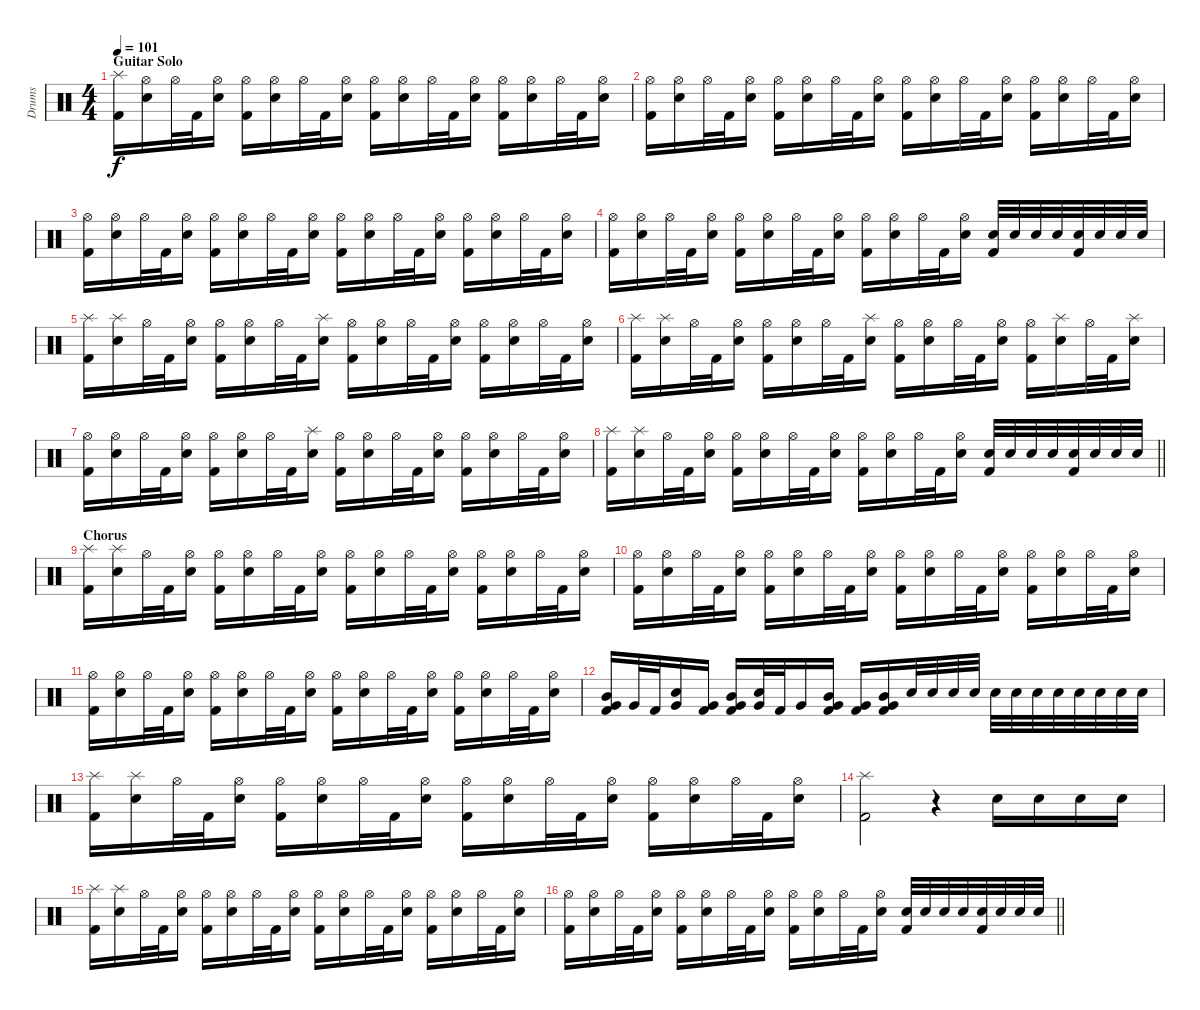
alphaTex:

\track ("Drums" "Drums") {instrument percussion}
\staff {score}
\articulation defaults
\ts (4 4)
\section ("" "Guitar Solo")
\tempo 101
\clef neutral
\ks c
("Splash (hit)" "Kick (hit) 2").16{dy f} ("Hi-Hat (open)" "Electric Snare (hit)").16 "Hi-Hat (open)".32 "Kick (hit) 2".32 ("Hi-Hat (open)" "Electric Snare (hit)").16 ("Hi-Hat (open)" "Kick (hit) 2").16 ("Hi-Hat (open)" "Electric Snare (hit)").16 "Hi-Hat (open)".32 "Kick (hit) 2".32 ("Hi-Hat (open)" "Electric Snare (hit)").16 ("Hi-Hat (open)" "Kick (hit) 2").16 ("Hi-Hat (open)" "Electric Snare (hit)").16 "Hi-Hat (open)".32 "Kick (hit) 2".32 ("Hi-Hat (open)" "Electric Snare (hit)").16 ("Hi-Hat (open)" "Kick (hit) 2").16 ("Hi-Hat (open)" "Electric Snare (hit)").16 "Hi-Hat (open)".32 "Kick (hit) 2".32 ("Hi-Hat (open)" "Electric Snare (hit)").16 |
("Hi-Hat (open)" "Kick (hit) 2").16 ("Hi-Hat (open)" "Electric Snare (hit)").16 "Hi-Hat (open)".32 "Kick (hit) 2".32 ("Hi-Hat (open)" "Electric Snare (hit)").16 ("Hi-Hat (open)" "Kick (hit) 2").16 ("Hi-Hat (open)" "Electric Snare (hit)").16 "Hi-Hat (open)".32 "Kick (hit) 2".32 ("Hi-Hat (open)" "Electric Snare (hit)").16 ("Hi-Hat (open)" "Kick (hit) 2").16 ("Hi-Hat (open)" "Electric Snare (hit)").16 "Hi-Hat (open)".32 "Kick (hit) 2".32 ("Hi-Hat (open)" "Electric Snare (hit)").16 ("Hi-Hat (open)" "Kick (hit) 2").16 ("Hi-Hat (open)" "Electric Snare (hit)").16 "Hi-Hat (open)".32 "Kick (hit) 2".32 ("Hi-Hat (open)" "Electric Snare (hit)").16 |
("Hi-Hat (open)" "Kick (hit) 2").16 ("Hi-Hat (open)" "Electric Snare (hit)").16 "Hi-Hat (open)".32 "Kick (hit) 2".32 ("Hi-Hat (open)" "Electric Snare (hit)").16 ("Hi-Hat (open)" "Kick (hit) 2").16 ("Hi-Hat (open)" "Electric Snare (hit)").16 "Hi-Hat (open)".32 "Kick (hit) 2".32 ("Hi-Hat (open)" "Electric Snare (hit)").16 ("Hi-Hat (open)" "Kick (hit) 2").16 ("Hi-Hat (open)" "Electric Snare (hit)").16 "Hi-Hat (open)".32 "Kick (hit) 2".32 ("Hi-Hat (open)" "Electric Snare (hit)").16 ("Hi-Hat (open)" "Kick (hit) 2").16 ("Hi-Hat (open)" "Electric Snare (hit)").16 "Hi-Hat (open)".32 "Kick (hit) 2".32 ("Hi-Hat (open)" "Electric Snare (hit)").16 |
("Hi-Hat (open)" "Kick (hit) 2").16 ("Hi-Hat (open)" "Electric Snare (hit)").16 "Hi-Hat (open)".32 "Kick (hit) 2".32 ("Hi-Hat (open)" "Electric Snare (hit)").16 ("Hi-Hat (open)" "Kick (hit) 2").16 ("Hi-Hat (open)" "Electric Snare (hit)").16 "Hi-Hat (open)".32 "Kick (hit) 2".32 ("Hi-Hat (open)" "Electric Snare (hit)").16 ("Hi-Hat (open)" "Kick (hit) 2").16 ("Hi-Hat (open)" "Electric Snare (hit)").16 "Hi-Hat (open)".32 "Kick (hit) 2".32 ("Hi-Hat (open)" "Electric Snare (hit)").16 ("Electric Snare (hit)" "Kick (hit) 2").32 "Electric Snare (hit)".32 "Electric Snare (hit)".32 "Electric Snare (hit)".32 ("Electric Snare (hit)" "Kick (hit) 2").32 "Electric Snare (hit)".32 "Electric Snare (hit)".32 "Electric Snare (hit)".32 |
("Splash (hit)" "Kick (hit) 2").16 ("Splash (hit)" "Electric Snare (hit)").16 "Hi-Hat (open)".32 "Kick (hit) 2".32 ("Hi-Hat (open)" "Electric Snare (hit)").16 ("Hi-Hat (open)" "Kick (hit) 2").16 ("Hi-Hat (open)" "Electric Snare (hit)").16 "Hi-Hat (open)".32 "Kick (hit) 2".32 ("Splash (hit)" "Electric Snare (hit)").16 ("Hi-Hat (open)" "Kick (hit) 2").16 ("Hi-Hat (open)" "Electric Snare (hit)").16 "Hi-Hat (open)".32 "Kick (hit) 2".32 ("Hi-Hat (open)" "Electric Snare (hit)").16 ("Hi-Hat (open)" "Kick (hit) 2").16 ("Hi-Hat (open)" "Electric Snare (hit)").16 "Hi-Hat (open)".32 "Kick (hit) 2".32 ("Hi-Hat (open)" "Electric Snare (hit)").16 |
("Splash (hit)" "Kick (hit) 2").16 ("Splash (hit)" "Electric Snare (hit)").16 "Hi-Hat (open)".32 "Kick (hit) 2".32 ("Hi-Hat (open)" "Electric Snare (hit)").16 ("Hi-Hat (open)" "Kick (hit) 2").16 ("Hi-Hat (open)" "Electric Snare (hit)").16 "Hi-Hat (open)".32 "Kick (hit) 2".32 ("Splash (hit)" "Electric Snare (hit)").16 ("Hi-Hat (open)" "Kick (hit) 2").16 ("Hi-Hat (open)" "Electric Snare (hit)").16 "Hi-Hat (open)".32 "Kick (hit) 2".32 ("Hi-Hat (open)" "Electric Snare (hit)").16 ("Hi-Hat (open)" "Kick (hit) 2").16 ("Splash (hit)" "Electric Snare (hit)").16 "Hi-Hat (open)".32 "Kick (hit) 2".32 ("Splash (hit)" "Electric Snare (hit)").16 |
("Hi-Hat (open)" "Kick (hit) 2").16 ("Hi-Hat (open)" "Electric Snare (hit)").16 "Hi-Hat (open)".32 "Kick (hit) 2".32 ("Hi-Hat (open)" "Electric Snare (hit)").16 ("Hi-Hat (open)" "Kick (hit) 2").16 ("Hi-Hat (open)" "Electric Snare (hit)").16 "Hi-Hat (open)".32 "Kick (hit) 2".32 ("Splash (hit)" "Electric Snare (hit)").16 ("Hi-Hat (open)" "Kick (hit) 2").16 ("Hi-Hat (open)" "Electric Snare (hit)").16 "Hi-Hat (open)".32 "Kick (hit) 2".32 ("Hi-Hat (open)" "Electric Snare (hit)").16 ("Hi-Hat (open)" "Kick (hit) 2").16 ("Hi-Hat (open)" "Electric Snare (hit)").16 "Hi-Hat (open)".32 "Kick (hit) 2".32 ("Hi-Hat (open)" "Electric Snare (hit)").16 |
\barLineRight lightlight
("Splash (hit)" "Kick (hit) 2").16 ("Splash (hit)" "Electric Snare (hit)").16 "Hi-Hat (open)".32 "Kick (hit) 2".32 ("Hi-Hat (open)" "Electric Snare (hit)").16 ("Hi-Hat (open)" "Kick (hit) 2").16 ("Hi-Hat (open)" "Electric Snare (hit)").16 "Hi-Hat (open)".32 "Kick (hit) 2".32 ("Hi-Hat (open)" "Electric Snare (hit)").16 ("Hi-Hat (open)" "Kick (hit) 2").16 ("Hi-Hat (open)" "Electric Snare (hit)").16 "Hi-Hat (open)".32 "Kick (hit) 2".32 ("Hi-Hat (open)" "Electric Snare (hit)").16 ("Electric Snare (hit)" "Kick (hit) 2").32 "Electric Snare (hit)".32 "Electric Snare (hit)".32 "Electric Snare (hit)".32 ("Electric Snare (hit)" "Kick (hit) 2").32 "Electric Snare (hit)".32 "Electric Snare (hit)".32 "Electric Snare (hit)".32 |
\section ("" "Chorus")
("Splash (hit)" "Kick (hit) 2").16 ("Splash (hit)" "Electric Snare (hit)").16 "Hi-Hat (open)".32 "Kick (hit) 2".32 ("Hi-Hat (open)" "Electric Snare (hit)").16 ("Hi-Hat (open)" "Kick (hit) 2").16 ("Hi-Hat (open)" "Electric Snare (hit)").16 "Hi-Hat (open)".32 "Kick (hit) 2".32 ("Hi-Hat (open)" "Electric Snare (hit)").16 ("Hi-Hat (open)" "Kick (hit) 2").16 ("Hi-Hat (open)" "Electric Snare (hit)").16 "Hi-Hat (open)".32 "Kick (hit) 2".32 ("Hi-Hat (open)" "Electric Snare (hit)").16 ("Hi-Hat (open)" "Kick (hit) 2").16 ("Hi-Hat (open)" "Electric Snare (hit)").16 "Hi-Hat (open)".32 "Kick (hit) 2".32 ("Hi-Hat (open)" "Electric Snare (hit)").16 |
("Hi-Hat (open)" "Kick (hit) 2").16 ("Hi-Hat (open)" "Electric Snare (hit)").16 "Hi-Hat (open)".32 "Kick (hit) 2".32 ("Hi-Hat (open)" "Electric Snare (hit)").16 ("Hi-Hat (open)" "Kick (hit) 2").16 ("Hi-Hat (open)" "Electric Snare (hit)").16 "Hi-Hat (open)".32 "Kick (hit) 2".32 ("Hi-Hat (open)" "Electric Snare (hit)").16 ("Hi-Hat (open)" "Kick (hit) 2").16 ("Hi-Hat (open)" "Electric Snare (hit)").16 "Hi-Hat (open)".32 "Kick (hit) 2".32 ("Hi-Hat (open)" "Electric Snare (hit)").16 ("Hi-Hat (open)" "Kick (hit) 2").16 ("Hi-Hat (open)" "Electric Snare (hit)").16 "Hi-Hat (open)".32 "Kick (hit) 2".32 ("Hi-Hat (open)" "Electric Snare (hit)").16 |
("Hi-Hat (open)" "Kick (hit) 2").16 ("Hi-Hat (open)" "Electric Snare (hit)").16 "Hi-Hat (open)".32 "Kick (hit) 2".32 ("Hi-Hat (open)" "Electric Snare (hit)").16 ("Hi-Hat (open)" "Kick (hit) 2").16 ("Hi-Hat (open)" "Electric Snare (hit)").16 "Hi-Hat (open)".32 "Kick (hit) 2".32 ("Hi-Hat (open)" "Electric Snare (hit)").16 ("Hi-Hat (open)" "Kick (hit) 2").16 ("Hi-Hat (open)" "Electric Snare (hit)").16 "Hi-Hat (open)".32 "Kick (hit) 2".32 ("Hi-Hat (open)" "Electric Snare (hit)").16 ("Hi-Hat (open)" "Kick (hit) 2").16 ("Hi-Hat (open)" "Electric Snare (hit)").16 "Hi-Hat (open)".32 "Kick (hit) 2".32 ("Hi-Hat (open)" "Electric Snare (hit)").16 |
("Mid Tom (hit)" "Very Low Tom (hit)" "Kick (hit) 2").16 "Very Low Tom (hit)".32 "Kick (hit) 2".32 ("Very Low Tom (hit)" "Electric Snare (hit)").16 ("Very Low Tom (hit)" "Kick (hit) 2").16 ("Mid Tom (hit)" "Very Low Tom (hit)" "Kick (hit) 2").16 ("Very Low Tom (hit)" "Electric Snare (hit)").32 "Kick (hit) 2".32 "Very Low Tom (hit)".16 ("Mid Tom (hit)" "Very Low Tom (hit)" "Kick (hit) 2").16 ("Very Low Tom (hit)" "Kick (hit) 2").16 ("Mid Tom (hit)" "Very Low Tom (hit)" "Kick (hit) 2").16 "Electric Snare (hit)".32 "Electric Snare (hit)".32 "Electric Snare (hit)".32 "Electric Snare (hit)".32 "Electric Snare (hit)".32 "Electric Snare (hit)".32 "Electric Snare (hit)".32 "Electric Snare (hit)".32 "Electric Snare (hit)".32 "Electric Snare (hit)".32 "Electric Snare (hit)".32 "Electric Snare (hit)".32 |
("Splash (hit)" "Kick (hit) 2").16 ("Splash (hit)" "Electric Snare (hit)").16 "Hi-Hat (open)".32 "Kick (hit) 2".32 ("Hi-Hat (open)" "Electric Snare (hit)").16 ("Hi-Hat (open)" "Kick (hit) 2").16 ("Hi-Hat (open)" "Electric Snare (hit)").16 "Hi-Hat (open)".32 "Kick (hit) 2".32 ("Hi-Hat (open)" "Electric Snare (hit)").16 ("Hi-Hat (open)" "Kick (hit) 2").16 ("Hi-Hat (open)" "Electric Snare (hit)").16 "Hi-Hat (open)".32 "Kick (hit) 2".32 ("Hi-Hat (open)" "Electric Snare (hit)").16 ("Hi-Hat (open)" "Kick (hit) 2").16 ("Hi-Hat (open)" "Electric Snare (hit)").16 "Hi-Hat (open)".32 "Kick (hit) 2".32 ("Hi-Hat (open)" "Electric Snare (hit)").16 |
("Splash (hit)" "Kick (hit) 2").2 r.4 "Electric Snare (hit)".16 "Electric Snare (hit)".16 "Electric Snare (hit)".16 "Electric Snare (hit)".16 |
("Splash (hit)" "Kick (hit) 2").16 ("Splash (hit)" "Electric Snare (hit)").16 "Hi-Hat (open)".32 "Kick (hit) 2".32 ("Hi-Hat (open)" "Electric Snare (hit)").16 ("Hi-Hat (open)" "Kick (hit) 2").16 ("Hi-Hat (open)" "Electric Snare (hit)").16 "Hi-Hat (open)".32 "Kick (hit) 2".32 ("Hi-Hat (open)" "Electric Snare (hit)").16 ("Hi-Hat (open)" "Kick (hit) 2").16 ("Hi-Hat (open)" "Electric Snare (hit)").16 "Hi-Hat (open)".32 "Kick (hit) 2".32 ("Hi-Hat (open)" "Electric Snare (hit)").16 ("Hi-Hat (open)" "Kick (hit) 2").16 ("Hi-Hat (open)" "Electric Snare (hit)").16 "Hi-Hat (open)".32 "Kick (hit) 2".32 ("Hi-Hat (open)" "Electric Snare (hit)").16 |
\barLineRight lightlight
("Hi-Hat (open)" "Kick (hit) 2").16 ("Hi-Hat (open)" "Electric Snare (hit)").16 "Hi-Hat (open)".32 "Kick (hit) 2".32 ("Hi-Hat (open)" "Electric Snare (hit)").16 ("Hi-Hat (open)" "Kick (hit) 2").16 ("Hi-Hat (open)" "Electric Snare (hit)").16 "Hi-Hat (open)".32 "Kick (hit) 2".32 ("Hi-Hat (open)" "Electric Snare (hit)").16 ("Hi-Hat (open)" "Kick (hit) 2").16 ("Hi-Hat (open)" "Electric Snare (hit)").16 "Hi-Hat (open)".32 "Kick (hit) 2".32 ("Hi-Hat (open)" "Electric Snare (hit)").16 ("Electric Snare (hit)" "Kick (hit) 2").32 "Electric Snare (hit)".32 "Electric Snare (hit)".32 "Electric Snare (hit)".32 ("Electric Snare (hit)" "Kick (hit) 2").32 "Electric Snare (hit)".32 "Electric Snare (hit)".32 "Electric Snare (hit)".32
